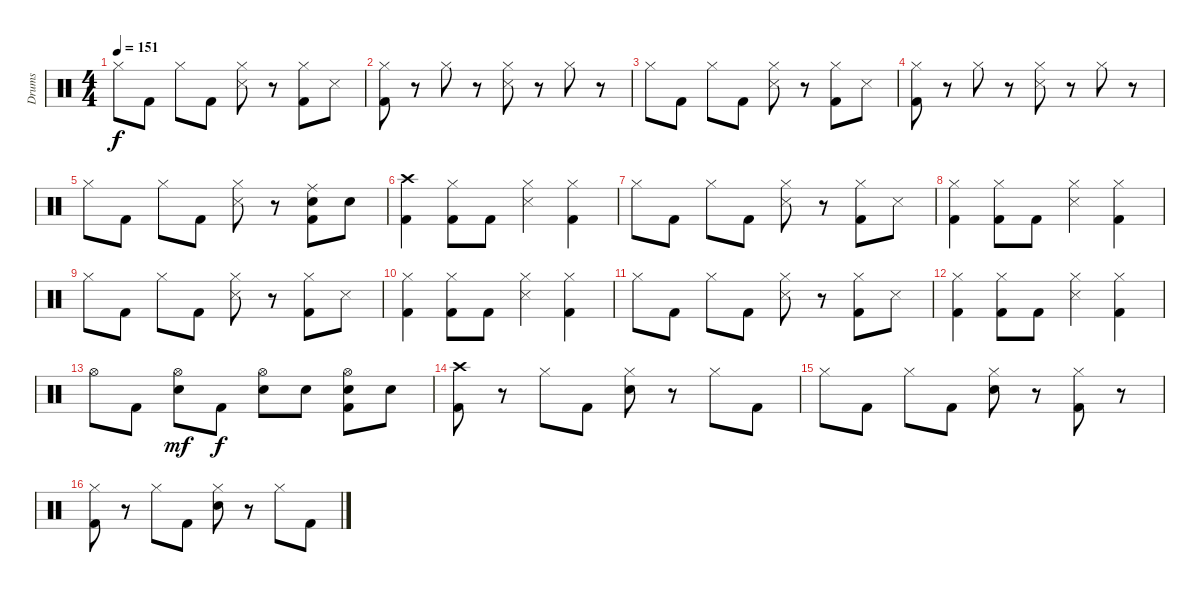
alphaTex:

\track ("Drums" "Drums") {instrument percussion}
\staff {score}
\articulation defaults
\ts (4 4)
\tempo 151
\clef neutral
\ks c "Hi-Hat (closed)".8{dy f} "Kick (hit) 2".8 "Hi-Hat (closed)".8 "Kick (hit) 2".8
("Metronome (hit)" "Hi-Hat (closed)").8 r.8 ("Kick (hit) 2" "Hi-Hat (closed)").8 "Metronome (hit)".8 |
("Kick (hit) 2" "Hi-Hat (closed)").8 r.8 "Hi-Hat (closed)".8 r.8 ("Metronome (hit)" "Hi-Hat (closed)").8 r.8 "Hi-Hat (closed)".8 r.8 |
"Hi-Hat (closed)".8 "Kick (hit) 2".8 "Hi-Hat (closed)".8 "Kick (hit) 2".8 ("Metronome (hit)" "Hi-Hat (closed)").8 r.8 ("Kick (hit) 2" "Hi-Hat (closed)").8 "Metronome (hit)".8 |
("Kick (hit) 2" "Hi-Hat (closed)").8 r.8 "Hi-Hat (closed)".8 r.8 ("Metronome (hit)" "Hi-Hat (closed)").8 r.8 "Hi-Hat (closed)".8 r.8 |
"Hi-Hat (closed)".8 "Kick (hit) 2".8 "Hi-Hat (closed)".8 "Kick (hit) 2".8 ("Metronome (hit)" "Hi-Hat (closed)").8 r.8 ("Electric Snare (hit)" "Kick (hit) 2" "Ride (middle)").8 "Electric Snare (hit)".8 |
("Kick (hit) 2" "Crash high (hit)").4 ("Kick (hit) 2" "Hi-Hat (closed)").8 "Kick (hit) 2".8 ("Metronome (hit)" "Hi-Hat (closed)").4 ("Kick (hit) 2" "Hi-Hat (closed)").4 |
"Hi-Hat (closed)".8 "Kick (hit) 2".8 "Hi-Hat (closed)".8 "Kick (hit) 2".8 ("Metronome (hit)" "Hi-Hat (closed)").8 r.8 ("Kick (hit) 2" "Hi-Hat (closed)").8 "Metronome (hit)".8 |
("Kick (hit) 2" "Hi-Hat (closed)").4 ("Kick (hit) 2" "Hi-Hat (closed)").8 "Kick (hit) 2".8 ("Metronome (hit)" "Hi-Hat (closed)").4 ("Kick (hit) 2" "Hi-Hat (closed)").4 |
"Hi-Hat (closed)".8 "Kick (hit) 2".8 "Hi-Hat (closed)".8 "Kick (hit) 2".8 ("Metronome (hit)" "Hi-Hat (closed)").8 r.8 ("Kick (hit) 2" "Hi-Hat (closed)").8 "Metronome (hit)".8 |
("Kick (hit) 2" "Hi-Hat (closed)").4 ("Kick (hit) 2" "Hi-Hat (closed)").8 "Kick (hit) 2".8 ("Metronome (hit)" "Hi-Hat (closed)").4 ("Kick (hit) 2" "Hi-Hat (closed)").4 |
"Hi-Hat (closed)".8 "Kick (hit) 2".8 "Hi-Hat (closed)".8 "Kick (hit) 2".8 ("Metronome (hit)" "Hi-Hat (closed)").8 r.8 ("Kick (hit) 2" "Hi-Hat (closed)").8 "Metronome (hit)".8 |
("Kick (hit) 2" "Hi-Hat (closed)").4 ("Kick (hit) 2" "Hi-Hat (closed)").8 "Kick (hit) 2".8 ("Metronome (hit)" "Hi-Hat (closed)").4 ("Kick (hit) 2" "Hi-Hat (closed)").4 |
"Hi-Hat (open)".8 "Kick (hit) 2".8 ("Electric Snare (hit)" "Hi-Hat (open)").8{dy mf} "Kick (hit) 2".8{dy f} ("Electric Snare (hit)" "Hi-Hat (open)").8 "Electric Snare (hit)".8 ("Electric Snare (hit)" "Kick (hit) 2" "Hi-Hat (open)").8 "Electric Snare (hit)".8 |
("Kick (hit) 2" "Crash high (hit)").8 r.8 "Hi-Hat (closed)".8 "Kick (hit) 2".8 ("Electric Snare (hit)" "Hi-Hat (closed)").8 r.8 "Hi-Hat (closed)".8 "Kick (hit) 2".8 |
"Hi-Hat (closed)".8 "Kick (hit) 2".8 "Hi-Hat (closed)".8 "Kick (hit) 2".8 ("Electric Snare (hit)" "Hi-Hat (closed)").8 r.8 ("Kick (hit) 2" "Hi-Hat (closed)").8 r.8 |
("Kick (hit) 2" "Hi-Hat (closed)").8 r.8 "Hi-Hat (closed)".8 "Kick (hit) 2".8 ("Electric Snare (hit)" "Hi-Hat (closed)").8 r.8 "Hi-Hat (closed)".8 "Kick (hit) 2".8
